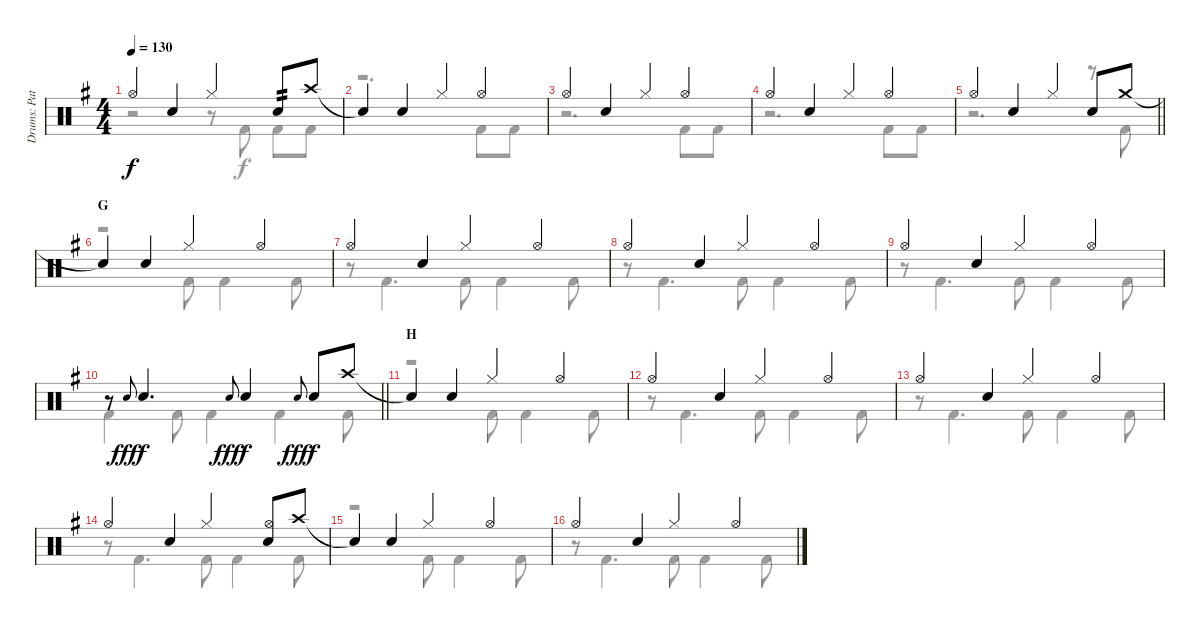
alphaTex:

\track ("Drums: Pat" "Drums: Pat") {instrument percussion}
\staff {score}
\articulation defaults
\voice
\ts (4 4)
\tempo 130
\clef neutral
\ks g "Hi-Hat (open)".4{dy f} "Snare (hit) 2".4 "Hi-Hat (closed)".4 "Snare (hit) 2".8{tp 2 beam merge} "Crash high (hit)".8
|
"Snare (hit)"{t}.4 "Snare (hit) 2".4 "Hi-Hat (closed)".4 "Hi-Hat (open)".4 |
"Hi-Hat (open)".4 "Snare (hit) 2".4 "Hi-Hat (closed)".4 "Hi-Hat (open)".4 |
"Hi-Hat (open)".4 "Snare (hit) 2".4 "Hi-Hat (closed)".4 "Hi-Hat (open)".4 |
\barLineRight lightlight "Hi-Hat (open)".4 "Snare (hit) 2".4 "Hi-Hat (closed)".4 "Snare (hit) 2".8 "Crash medium (hit)".8
|
\section ("" "G")
"Snare (hit)"{t}.4 "Snare (hit) 2".4 "Hi-Hat (closed)".4 "Hi-Hat (open)".4 |
"Hi-Hat (open)".4 "Snare (hit) 2".4 "Hi-Hat (closed)".4 "Hi-Hat (open)".4 |
"Hi-Hat (open)".4 "Snare (hit) 2".4 "Hi-Hat (closed)".4 "Hi-Hat (open)".4 |
"Hi-Hat (open)".4 "Snare (hit) 2".4 "Hi-Hat (closed)".4 "Hi-Hat (open)".4 |
\barLineRight lightlight
r.8 "Electric Snare (hit)".8{gr onbeat dy fff} "Snare (hit) 2".4{d dy f} "Electric Snare (hit)".8{gr onbeat dy fff} "Snare (hit) 2".4{dy f} "Electric Snare (hit)".8{gr onbeat dy fff} "Snare (hit) 2".8{dy f} "Crash high (hit)".8 |
\section ("" "H")
"Snare (hit)"{t}.4 "Snare (hit) 2".4 "Hi-Hat (closed)".4 "Hi-Hat (open)".4 |
"Hi-Hat (open)".4 "Snare (hit) 2".4 "Hi-Hat (closed)".4 "Hi-Hat (open)".4 |
"Hi-Hat (open)".4 "Snare (hit) 2".4 "Hi-Hat (closed)".4 "Hi-Hat (open)".4 |
"Hi-Hat (open)".4 "Snare (hit) 2".4 "Hi-Hat (closed)".4 ("Hi-Hat (open)" "Snare (hit) 2").8 "Crash high (hit)".8 |
"Snare (hit)"{t}.4 "Snare (hit) 2".4 "Hi-Hat (closed)".4 "Hi-Hat (open)".4 |
"Hi-Hat (open)".4 "Snare (hit) 2".4 "Hi-Hat (closed)".4 "Hi-Hat (open)".4
\voice
\clef neutral
\ottava regular
\simile none
\ks g
r.2{dy f} r.8 "Kick (hit) 2".8 "Kick (hit) 2".8 "Kick (hit) 2".8 |
r.2{d} "Kick (hit) 2".8 "Kick (hit) 2".8 |
r.2{d} "Kick (hit) 2".8 "Kick (hit) 2".8 |
r.2{d} "Kick (hit) 2".8 "Kick (hit) 2".8 |
\barLineRight lightlight
r.2{d} r.8 "Kick (hit) 2".8 |
r.2 "Kick (hit) 2".8 "Kick (hit) 2".4 "Kick (hit) 2".8 |
r.8 "Kick (hit) 2".4{d} "Kick (hit) 2".8 "Kick (hit) 2".4 "Kick (hit) 2".8 |
r.8 "Kick (hit) 2".4{d} "Kick (hit) 2".8 "Kick (hit) 2".4 "Kick (hit) 2".8 |
r.8 "Kick (hit) 2".4{d} "Kick (hit) 2".8 "Kick (hit) 2".4 "Kick (hit) 2".8 |
\barLineRight lightlight "Kick (hit) 2".4 "Kick (hit) 2".8 "Kick (hit) 2".4 "Kick (hit) 2".4 "Kick (hit) 2".8
|
r.2 "Kick (hit) 2".8 "Kick (hit) 2".4 "Kick (hit) 2".8 |
r.8 "Kick (hit) 2".4{d} "Kick (hit) 2".8 "Kick (hit) 2".4 "Kick (hit) 2".8 |
r.8 "Kick (hit) 2".4{d} "Kick (hit) 2".8 "Kick (hit) 2".4 "Kick (hit) 2".8 |
r.8 "Kick (hit) 2".4{d} "Kick (hit) 2".8 "Kick (hit) 2".4 "Kick (hit) 2".8 |
r.2 "Kick (hit) 2".8 "Kick (hit) 2".4 "Kick (hit) 2".8 |
r.8 "Kick (hit) 2".4{d} "Kick (hit) 2".8 "Kick (hit) 2".4 "Kick (hit) 2".8
